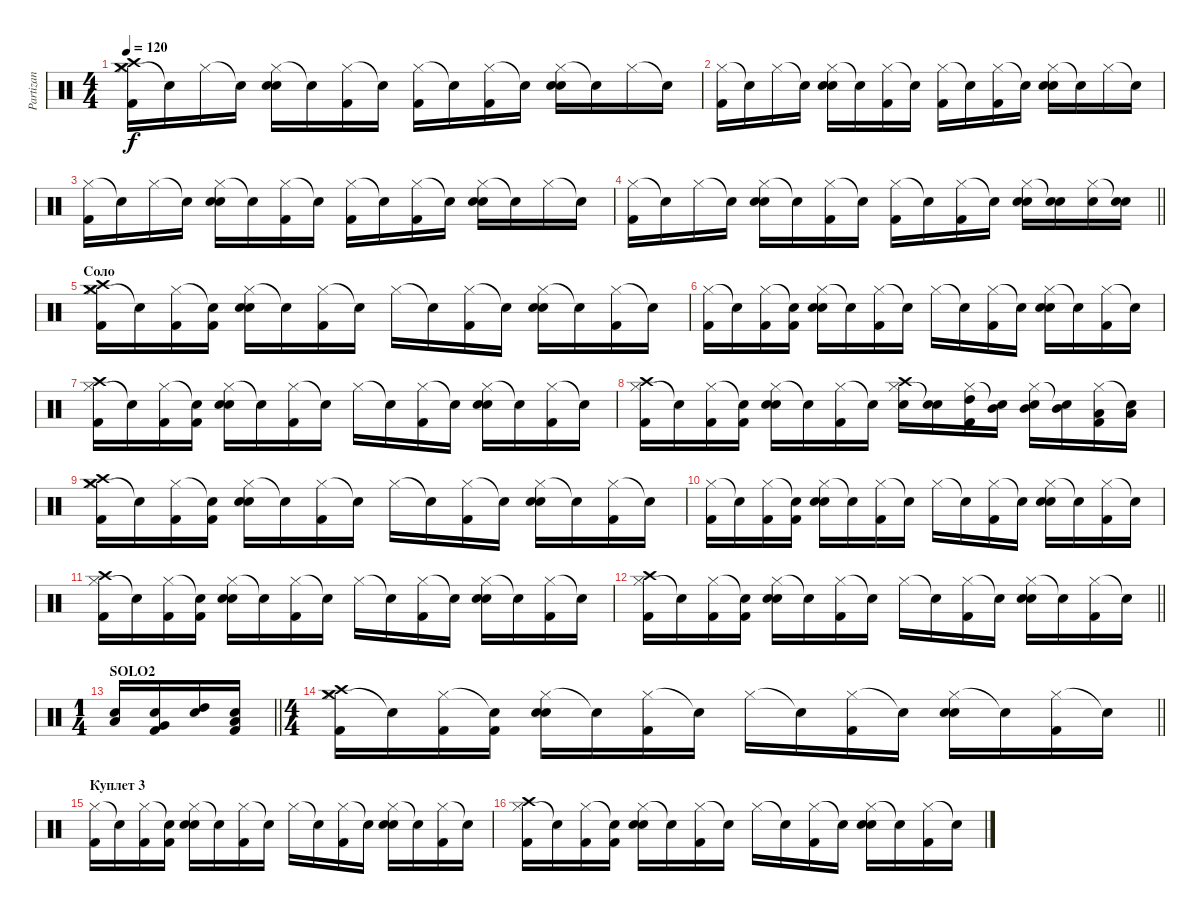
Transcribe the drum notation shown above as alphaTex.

\track ("Partizan" "Partizan") {instrument percussion}
\staff {score}
\articulation defaults
\ts (4 4)
\tempo 120
\clef neutral
\ks c
("Hi-Hat (closed)" "Crash high (hit)" "Crash medium (hit)" "Kick (hit) 2").16{dy f} "Snare (hit)"{t}.16 "Hi-Hat (closed)".16 "Snare (hit)"{t}.16 ("Hi-Hat (closed)" "Electric Snare (hit)" "Snare (hit) 2").16 "Snare (hit)"{t}.16 ("Hi-Hat (closed)" "Kick (hit) 2").16 "Snare (hit)"{t}.16 ("Hi-Hat (closed)" "Kick (hit) 2").16 "Snare (hit)"{t}.16 ("Hi-Hat (closed)" "Kick (hit) 2").16 "Snare (hit)"{t}.16 ("Hi-Hat (closed)" "Electric Snare (hit)" "Snare (hit) 2").16 "Snare (hit)"{t}.16 "Hi-Hat (closed)".16 "Snare (hit)"{t}.16 |
("Hi-Hat (closed)" "Kick (hit) 2").16 "Snare (hit)"{t}.16 "Hi-Hat (closed)".16 "Snare (hit)"{t}.16 ("Hi-Hat (closed)" "Electric Snare (hit)" "Snare (hit) 2").16 "Snare (hit)"{t}.16 ("Hi-Hat (closed)" "Kick (hit) 2").16 "Snare (hit)"{t}.16 ("Hi-Hat (closed)" "Kick (hit) 2").16 "Snare (hit)"{t}.16 ("Hi-Hat (closed)" "Kick (hit) 2").16 "Snare (hit)"{t}.16 ("Hi-Hat (closed)" "Electric Snare (hit)" "Snare (hit) 2").16 "Snare (hit)"{t}.16 "Hi-Hat (closed)".16 "Snare (hit)"{t}.16 |
("Hi-Hat (closed)" "Kick (hit) 2").16 "Snare (hit)"{t}.16 "Hi-Hat (closed)".16 "Snare (hit)"{t}.16 ("Hi-Hat (closed)" "Electric Snare (hit)" "Snare (hit) 2").16 "Snare (hit)"{t}.16 ("Hi-Hat (closed)" "Kick (hit) 2").16 "Snare (hit)"{t}.16 ("Hi-Hat (closed)" "Kick (hit) 2").16 "Snare (hit)"{t}.16 ("Hi-Hat (closed)" "Kick (hit) 2").16 "Snare (hit)"{t}.16 ("Hi-Hat (closed)" "Electric Snare (hit)" "Snare (hit) 2").16 "Snare (hit)"{t}.16 "Hi-Hat (closed)".16 "Snare (hit)"{t}.16 |
\barLineRight lightlight
("Hi-Hat (closed)" "Kick (hit) 2").16 "Snare (hit)"{t}.16 "Hi-Hat (closed)".16 "Snare (hit)"{t}.16 ("Hi-Hat (closed)" "Electric Snare (hit)" "Snare (hit) 2").16 "Snare (hit)"{t}.16 ("Hi-Hat (closed)" "Kick (hit) 2").16 "Snare (hit)"{t}.16 ("Hi-Hat (closed)" "Kick (hit) 2").16 "Snare (hit)"{t}.16 ("Hi-Hat (closed)" "Kick (hit) 2").16 "Snare (hit)"{t}.16 ("Hi-Hat (closed)" "Electric Snare (hit)" "Snare (hit) 2").16 ("Snare (hit)"{t} "Electric Snare (hit)").16 ("Hi-Hat (closed)" "Electric Snare (hit)").16 ("Snare (hit)"{t} "Electric Snare (hit)").16 |
\section ("" "Соло")
("Hi-Hat (closed)" "Crash high (hit)" "Crash medium (hit)" "Kick (hit) 2").16 "Snare (hit)"{t}.16 ("Hi-Hat (closed)" "Kick (hit) 2").16 ("Snare (hit)"{t} "Kick (hit) 2").16 ("Hi-Hat (closed)" "Electric Snare (hit)" "Snare (hit) 2").16 "Snare (hit)"{t}.16 ("Hi-Hat (closed)" "Kick (hit) 2").16 "Snare (hit)"{t}.16 "Hi-Hat (closed)".16 "Snare (hit)"{t}.16 ("Hi-Hat (closed)" "Kick (hit) 2").16 "Snare (hit)"{t}.16 ("Hi-Hat (closed)" "Electric Snare (hit)" "Snare (hit) 2").16 "Snare (hit)"{t}.16 ("Hi-Hat (closed)" "Kick (hit) 2").16 "Snare (hit)"{t}.16 |
("Hi-Hat (closed)" "Kick (hit) 2").16 "Snare (hit)"{t}.16 ("Hi-Hat (closed)" "Kick (hit) 2").16 ("Snare (hit)"{t} "Kick (hit) 2").16 ("Hi-Hat (closed)" "Electric Snare (hit)" "Snare (hit) 2").16 "Snare (hit)"{t}.16 ("Hi-Hat (closed)" "Kick (hit) 2").16 "Snare (hit)"{t}.16 "Hi-Hat (closed)".16 "Snare (hit)"{t}.16 ("Hi-Hat (closed)" "Kick (hit) 2").16 "Snare (hit)"{t}.16 ("Hi-Hat (closed)" "Electric Snare (hit)" "Snare (hit) 2").16 "Snare (hit)"{t}.16 ("Hi-Hat (closed)" "Kick (hit) 2").16 "Snare (hit)"{t}.16 |
("Hi-Hat (closed)" "Crash high (hit)" "Kick (hit) 2").16 "Snare (hit)"{t}.16 ("Hi-Hat (closed)" "Kick (hit) 2").16 ("Snare (hit)"{t} "Kick (hit) 2").16 ("Hi-Hat (closed)" "Electric Snare (hit)" "Snare (hit) 2").16 "Snare (hit)"{t}.16 ("Hi-Hat (closed)" "Kick (hit) 2").16 "Snare (hit)"{t}.16 "Hi-Hat (closed)".16 "Snare (hit)"{t}.16 ("Hi-Hat (closed)" "Kick (hit) 2").16 "Snare (hit)"{t}.16 ("Hi-Hat (closed)" "Electric Snare (hit)" "Snare (hit) 2").16 "Snare (hit)"{t}.16 ("Hi-Hat (closed)" "Kick (hit) 2").16 "Snare (hit)"{t}.16 |
("Hi-Hat (closed)" "Crash high (hit)" "Kick (hit) 2").16 "Snare (hit)"{t}.16 ("Hi-Hat (closed)" "Kick (hit) 2").16 ("Snare (hit)"{t} "Kick (hit) 2").16 ("Hi-Hat (closed)" "Electric Snare (hit)" "Snare (hit) 2").16 "Snare (hit)"{t}.16 ("Hi-Hat (closed)" "Kick (hit) 2").16 "Snare (hit)"{t}.16 ("Hi-Hat (closed)" "Crash high (hit)" "Electric Snare (hit)").16 ("Snare (hit)"{t} "Electric Snare (hit)").16 ("Hi-Hat (closed)" "High Tom (hit)" "Kick (hit) 2").16 ("Snare (hit)"{t} "Mid Tom (hit)").16 ("Hi-Hat (closed)" "Electric Snare (hit)" "Mid Tom (hit)").16 ("Snare (hit)"{t} "Mid Tom (hit)").16 ("Hi-Hat (closed)" "Low Tom (hit)" "Kick (hit) 2").16 ("Snare (hit)"{t} "Low Tom (hit)").16 |
("Hi-Hat (closed)" "Crash medium (hit)" "Crash high (hit)" "Kick (hit) 2").16 "Snare (hit)"{t}.16 ("Hi-Hat (closed)" "Kick (hit) 2").16 ("Snare (hit)"{t} "Kick (hit) 2").16 ("Hi-Hat (closed)" "Electric Snare (hit)" "Snare (hit) 2").16 "Snare (hit)"{t}.16 ("Hi-Hat (closed)" "Kick (hit) 2").16 "Snare (hit)"{t}.16 "Hi-Hat (closed)".16 "Snare (hit)"{t}.16 ("Hi-Hat (closed)" "Kick (hit) 2").16 "Snare (hit)"{t}.16 ("Hi-Hat (closed)" "Electric Snare (hit)" "Snare (hit) 2").16 "Snare (hit)"{t}.16 ("Hi-Hat (closed)" "Kick (hit) 2").16 "Snare (hit)"{t}.16 |
("Hi-Hat (closed)" "Kick (hit) 2").16 "Snare (hit)"{t}.16 ("Hi-Hat (closed)" "Kick (hit) 2").16 ("Snare (hit)"{t} "Kick (hit) 2").16 ("Hi-Hat (closed)" "Electric Snare (hit)" "Snare (hit) 2").16 "Snare (hit)"{t}.16 ("Hi-Hat (closed)" "Kick (hit) 2").16 "Snare (hit)"{t}.16 "Hi-Hat (closed)".16 "Snare (hit)"{t}.16 ("Hi-Hat (closed)" "Kick (hit) 2").16 "Snare (hit)"{t}.16 ("Hi-Hat (closed)" "Electric Snare (hit)" "Snare (hit) 2").16 "Snare (hit)"{t}.16 ("Hi-Hat (closed)" "Kick (hit) 2").16 "Snare (hit)"{t}.16 |
("Hi-Hat (closed)" "Crash high (hit)" "Kick (hit) 2").16 "Snare (hit)"{t}.16 ("Hi-Hat (closed)" "Kick (hit) 2").16 ("Snare (hit)"{t} "Kick (hit) 2").16 ("Hi-Hat (closed)" "Electric Snare (hit)" "Snare (hit) 2").16 "Snare (hit)"{t}.16 ("Hi-Hat (closed)" "Kick (hit) 2").16 "Snare (hit)"{t}.16 "Hi-Hat (closed)".16 "Snare (hit)"{t}.16 ("Hi-Hat (closed)" "Kick (hit) 2").16 "Snare (hit)"{t}.16 ("Hi-Hat (closed)" "Electric Snare (hit)" "Snare (hit) 2").16 "Snare (hit)"{t}.16 ("Hi-Hat (closed)" "Kick (hit) 2").16 "Snare (hit)"{t}.16 |
\barLineRight lightlight
("Hi-Hat (closed)" "Crash high (hit)" "Kick (hit) 2").16 "Snare (hit)"{t}.16 ("Hi-Hat (closed)" "Kick (hit) 2").16 ("Snare (hit)"{t} "Kick (hit) 2").16 ("Hi-Hat (closed)" "Electric Snare (hit)" "Snare (hit) 2").16 "Snare (hit)"{t}.16 ("Hi-Hat (closed)" "Kick (hit) 2").16 "Snare (hit)"{t}.16 "Hi-Hat (closed)".16 "Snare (hit)"{t}.16 ("Hi-Hat (closed)" "Kick (hit) 2").16 "Snare (hit)"{t}.16 ("Hi-Hat (closed)" "Electric Snare (hit)" "Snare (hit) 2").16 "Snare (hit)"{t}.16 ("Hi-Hat (closed)" "Kick (hit) 2").16 "Snare (hit)"{t}.16 |
\ts (1 4)
\section ("" "SOLO2")
\barLineRight lightlight
("Low Tom (hit)" "Electric Snare (hit)").16 ("Very Low Tom (hit)" "Electric Snare (hit)" "Kick (hit) 2").16 ("High Tom (hit)" "Electric Snare (hit)").16 ("Low Floor Tom (hit)" "Electric Snare (hit)" "Kick (hit) 2").16 |
\ts (4 4)
\barLineRight lightlight
("Hi-Hat (closed)" "Crash high (hit)" "Crash medium (hit)" "Kick (hit) 2").16 "Snare (hit)"{t}.16 ("Hi-Hat (closed)" "Kick (hit) 2").16 ("Snare (hit)"{t} "Kick (hit) 2").16 ("Hi-Hat (closed)" "Electric Snare (hit)" "Snare (hit) 2").16 "Snare (hit)"{t}.16 ("Hi-Hat (closed)" "Kick (hit) 2").16 "Snare (hit)"{t}.16 "Hi-Hat (closed)".16 "Snare (hit)"{t}.16 ("Hi-Hat (closed)" "Kick (hit) 2").16 "Snare (hit)"{t}.16 ("Hi-Hat (closed)" "Electric Snare (hit)" "Snare (hit) 2").16 "Snare (hit)"{t}.16 ("Hi-Hat (closed)" "Kick (hit) 2").16 "Snare (hit)"{t}.16 |
\section ("" "Куплет 3")
("Hi-Hat (closed)" "Kick (hit) 2").16 "Snare (hit)"{t}.16 ("Hi-Hat (closed)" "Kick (hit) 2").16 ("Snare (hit)"{t} "Kick (hit) 2").16 ("Hi-Hat (closed)" "Electric Snare (hit)" "Snare (hit) 2").16 "Snare (hit)"{t}.16 ("Hi-Hat (closed)" "Kick (hit) 2").16 "Snare (hit)"{t}.16 "Hi-Hat (closed)".16 "Snare (hit)"{t}.16 ("Hi-Hat (closed)" "Kick (hit) 2").16 "Snare (hit)"{t}.16 ("Hi-Hat (closed)" "Electric Snare (hit)" "Snare (hit) 2").16 "Snare (hit)"{t}.16 ("Hi-Hat (closed)" "Kick (hit) 2").16 "Snare (hit)"{t}.16 |
("Hi-Hat (closed)" "Crash high (hit)" "Kick (hit) 2").16 "Snare (hit)"{t}.16 ("Hi-Hat (closed)" "Kick (hit) 2").16 ("Snare (hit)"{t} "Kick (hit) 2").16 ("Hi-Hat (closed)" "Electric Snare (hit)" "Snare (hit) 2").16 "Snare (hit)"{t}.16 ("Hi-Hat (closed)" "Kick (hit) 2").16 "Snare (hit)"{t}.16 "Hi-Hat (closed)".16 "Snare (hit)"{t}.16 ("Hi-Hat (closed)" "Kick (hit) 2").16 "Snare (hit)"{t}.16 ("Hi-Hat (closed)" "Electric Snare (hit)" "Snare (hit) 2").16 "Snare (hit)"{t}.16 ("Hi-Hat (closed)" "Kick (hit) 2").16 "Snare (hit)"{t}.16
